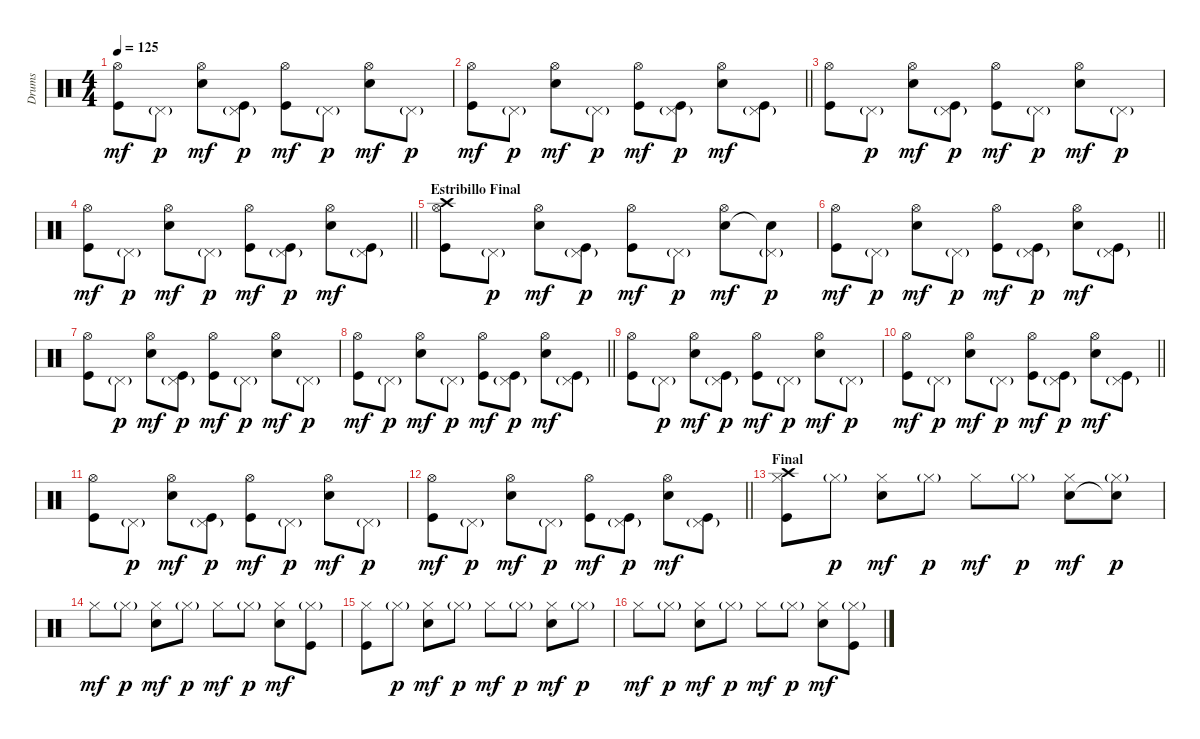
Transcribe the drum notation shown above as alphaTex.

\track ("Drums" "Drums") {instrument percussion}
\staff {score}
\articulation defaults
\ts (4 4)
\tempo 125
\clef neutral
\ks c
("Hi-Hat (open)" "Kick (hit)").8{dy mf} "Pedal Hi-Hat (hit)"{g}.8{dy p} ("Hi-Hat (open)" "Electric Snare (hit)").8{dy mf} ("Pedal Hi-Hat (hit)"{g} "Kick (hit)").8{dy p} ("Hi-Hat (open)" "Kick (hit)").8{dy mf} "Pedal Hi-Hat (hit)"{g}.8{dy p} ("Hi-Hat (open)" "Electric Snare (hit)").8{dy mf} "Pedal Hi-Hat (hit)"{g}.8{dy p} |
\barLineRight lightlight
("Hi-Hat (open)" "Kick (hit)").8{dy mf} "Pedal Hi-Hat (hit)"{g}.8{dy p} ("Hi-Hat (open)" "Electric Snare (hit)").8{dy mf} "Pedal Hi-Hat (hit)"{g}.8{dy p} ("Hi-Hat (open)" "Kick (hit)").8{dy mf} ("Pedal Hi-Hat (hit)"{g} "Kick (hit)").8{dy p} ("Hi-Hat (open)" "Electric Snare (hit)").8{dy mf} ("Pedal Hi-Hat (hit)"{g} "Kick (hit)").8 |
("Hi-Hat (open)" "Kick (hit)").8 "Pedal Hi-Hat (hit)"{g}.8{dy p} ("Hi-Hat (open)" "Electric Snare (hit)").8{dy mf} ("Pedal Hi-Hat (hit)"{g} "Kick (hit)").8{dy p} ("Hi-Hat (open)" "Kick (hit)").8{dy mf} "Pedal Hi-Hat (hit)"{g}.8{dy p} ("Hi-Hat (open)" "Electric Snare (hit)").8{dy mf} "Pedal Hi-Hat (hit)"{g}.8{dy p} |
\barLineRight lightlight
("Hi-Hat (open)" "Kick (hit)").8{dy mf} "Pedal Hi-Hat (hit)"{g}.8{dy p} ("Hi-Hat (open)" "Electric Snare (hit)").8{dy mf} "Pedal Hi-Hat (hit)"{g}.8{dy p} ("Hi-Hat (open)" "Kick (hit)").8{dy mf} ("Pedal Hi-Hat (hit)"{g} "Kick (hit)").8{dy p} ("Hi-Hat (open)" "Electric Snare (hit)").8{dy mf} ("Pedal Hi-Hat (hit)"{g} "Kick (hit)").8 |
\section ("" "Estribillo Final")
("Hi-Hat (open)" "Kick (hit)" "Crash high (hit)").8 "Pedal Hi-Hat (hit)"{g}.8{dy p} ("Hi-Hat (open)" "Electric Snare (hit)").8{dy mf} ("Pedal Hi-Hat (hit)"{g} "Kick (hit)").8{dy p} ("Hi-Hat (open)" "Kick (hit)").8{dy mf} "Pedal Hi-Hat (hit)"{g}.8{dy p} ("Hi-Hat (open)" "Electric Snare (hit)").8{dy mf} ("Pedal Hi-Hat (hit)"{g} "Snare (hit)"{t}).8{dy p} |
\barLineRight lightlight
("Hi-Hat (open)" "Kick (hit)").8{dy mf} "Pedal Hi-Hat (hit)"{g}.8{dy p} ("Hi-Hat (open)" "Electric Snare (hit)").8{dy mf} "Pedal Hi-Hat (hit)"{g}.8{dy p} ("Hi-Hat (open)" "Kick (hit)").8{dy mf} ("Pedal Hi-Hat (hit)"{g} "Kick (hit)").8{dy p} ("Hi-Hat (open)" "Electric Snare (hit)").8{dy mf} ("Pedal Hi-Hat (hit)"{g} "Kick (hit)").8 |
("Hi-Hat (open)" "Kick (hit)").8 "Pedal Hi-Hat (hit)"{g}.8{dy p} ("Hi-Hat (open)" "Electric Snare (hit)").8{dy mf} ("Pedal Hi-Hat (hit)"{g} "Kick (hit)").8{dy p} ("Hi-Hat (open)" "Kick (hit)").8{dy mf} "Pedal Hi-Hat (hit)"{g}.8{dy p} ("Hi-Hat (open)" "Electric Snare (hit)").8{dy mf} "Pedal Hi-Hat (hit)"{g}.8{dy p} |
\barLineRight lightlight
("Hi-Hat (open)" "Kick (hit)").8{dy mf} "Pedal Hi-Hat (hit)"{g}.8{dy p} ("Hi-Hat (open)" "Electric Snare (hit)").8{dy mf} "Pedal Hi-Hat (hit)"{g}.8{dy p} ("Hi-Hat (open)" "Kick (hit)").8{dy mf} ("Pedal Hi-Hat (hit)"{g} "Kick (hit)").8{dy p} ("Hi-Hat (open)" "Electric Snare (hit)").8{dy mf} ("Pedal Hi-Hat (hit)"{g} "Kick (hit)").8 |
("Hi-Hat (open)" "Kick (hit)").8 "Pedal Hi-Hat (hit)"{g}.8{dy p} ("Hi-Hat (open)" "Electric Snare (hit)").8{dy mf} ("Pedal Hi-Hat (hit)"{g} "Kick (hit)").8{dy p} ("Hi-Hat (open)" "Kick (hit)").8{dy mf} "Pedal Hi-Hat (hit)"{g}.8{dy p} ("Hi-Hat (open)" "Electric Snare (hit)").8{dy mf} "Pedal Hi-Hat (hit)"{g}.8{dy p} |
\barLineRight lightlight
("Hi-Hat (open)" "Kick (hit)").8{dy mf} "Pedal Hi-Hat (hit)"{g}.8{dy p} ("Hi-Hat (open)" "Electric Snare (hit)").8{dy mf} "Pedal Hi-Hat (hit)"{g}.8{dy p} ("Hi-Hat (open)" "Kick (hit)").8{dy mf} ("Pedal Hi-Hat (hit)"{g} "Kick (hit)").8{dy p} ("Hi-Hat (open)" "Electric Snare (hit)").8{dy mf} ("Pedal Hi-Hat (hit)"{g} "Kick (hit)").8 |
("Hi-Hat (open)" "Kick (hit)").8 "Pedal Hi-Hat (hit)"{g}.8{dy p} ("Hi-Hat (open)" "Electric Snare (hit)").8{dy mf} ("Pedal Hi-Hat (hit)"{g} "Kick (hit)").8{dy p} ("Hi-Hat (open)" "Kick (hit)").8{dy mf} "Pedal Hi-Hat (hit)"{g}.8{dy p} ("Hi-Hat (open)" "Electric Snare (hit)").8{dy mf} "Pedal Hi-Hat (hit)"{g}.8{dy p} |
\barLineRight lightlight
("Hi-Hat (open)" "Kick (hit)").8{dy mf} "Pedal Hi-Hat (hit)"{g}.8{dy p} ("Hi-Hat (open)" "Electric Snare (hit)").8{dy mf} "Pedal Hi-Hat (hit)"{g}.8{dy p} ("Hi-Hat (open)" "Kick (hit)").8{dy mf} ("Pedal Hi-Hat (hit)"{g} "Kick (hit)").8{dy p} ("Hi-Hat (open)" "Electric Snare (hit)").8{dy mf} ("Pedal Hi-Hat (hit)"{g} "Kick (hit)").8 |
\section ("" "Final")
("Hi-Hat (closed)" "Kick (hit)" "Crash high (hit)").8 "Hi-Hat (closed)"{g}.8{dy p} ("Hi-Hat (closed)" "Electric Snare (hit)").8{dy mf} "Hi-Hat (closed)"{g}.8{dy p} "Hi-Hat (closed)".8{dy mf} "Hi-Hat (closed)"{g}.8{dy p} ("Hi-Hat (closed)" "Electric Snare (hit)").8{dy mf} ("Hi-Hat (closed)"{g} "Snare (hit)"{t}).8{dy p} |
"Hi-Hat (closed)".8{dy mf} "Hi-Hat (closed)"{g}.8{dy p} ("Hi-Hat (closed)" "Electric Snare (hit)").8{dy mf} "Hi-Hat (closed)"{g}.8{dy p} "Hi-Hat (closed)".8{dy mf} "Hi-Hat (closed)"{g}.8{dy p} ("Hi-Hat (closed)" "Electric Snare (hit)").8{dy mf} ("Hi-Hat (closed)"{g} "Kick (hit)").8 |
("Hi-Hat (closed)" "Kick (hit)").8 "Hi-Hat (closed)"{g}.8{dy p} ("Hi-Hat (closed)" "Electric Snare (hit)").8{dy mf} "Hi-Hat (closed)"{g}.8{dy p} "Hi-Hat (closed)".8{dy mf} "Hi-Hat (closed)"{g}.8{dy p} ("Hi-Hat (closed)" "Electric Snare (hit)").8{dy mf} "Hi-Hat (closed)"{g}.8{dy p} |
"Hi-Hat (closed)".8{dy mf} "Hi-Hat (closed)"{g}.8{dy p} ("Hi-Hat (closed)" "Electric Snare (hit)").8{dy mf} "Hi-Hat (closed)"{g}.8{dy p} "Hi-Hat (closed)".8{dy mf} "Hi-Hat (closed)"{g}.8{dy p} ("Hi-Hat (closed)" "Electric Snare (hit)").8{dy mf} ("Hi-Hat (closed)"{g} "Kick (hit)").8
